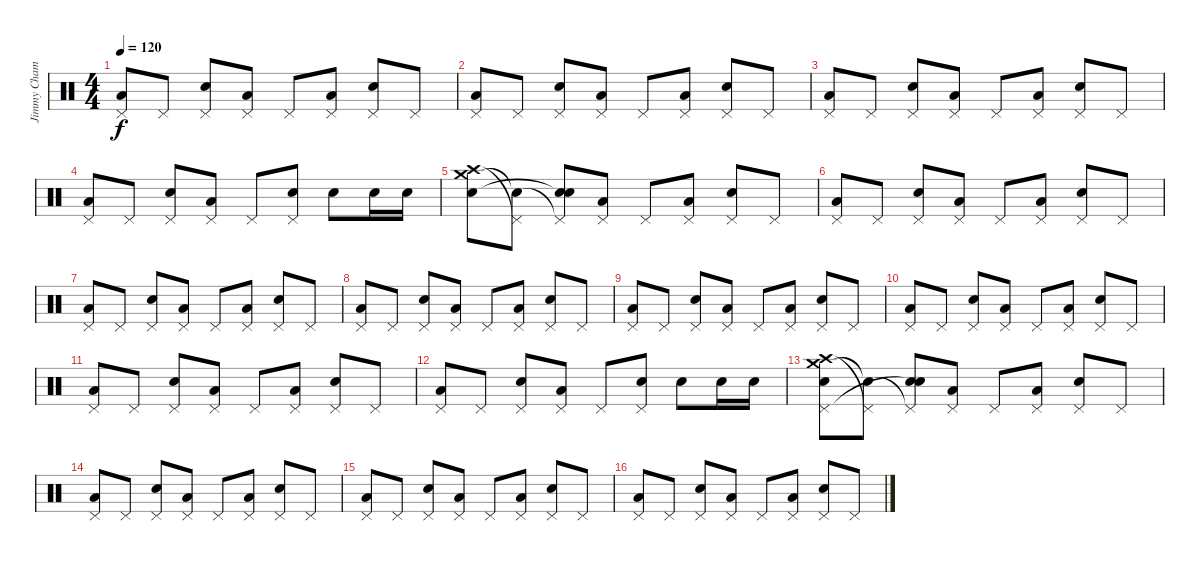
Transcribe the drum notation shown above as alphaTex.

\track ("Jimmy Chamberlin" "Jimmy Cham") {instrument percussion}
\staff {score}
\articulation defaults
\ts (4 4)
\tempo 120
\clef neutral
\ks c
("Low Floor Tom (hit)" "Pedal Hi-Hat (hit)").8{dy f} "Pedal Hi-Hat (hit)".8 ("Snare (hit) 2" "Pedal Hi-Hat (hit)").8 ("Low Floor Tom (hit)" "Pedal Hi-Hat (hit)").8 "Pedal Hi-Hat (hit)".8 ("Low Floor Tom (hit)" "Pedal Hi-Hat (hit)").8 ("Snare (hit) 2" "Pedal Hi-Hat (hit)").8 "Pedal Hi-Hat (hit)".8 |
("Low Floor Tom (hit)" "Pedal Hi-Hat (hit)").8 "Pedal Hi-Hat (hit)".8 ("Snare (hit) 2" "Pedal Hi-Hat (hit)").8 ("Low Floor Tom (hit)" "Pedal Hi-Hat (hit)").8 "Pedal Hi-Hat (hit)".8 ("Low Floor Tom (hit)" "Pedal Hi-Hat (hit)").8 ("Snare (hit) 2" "Pedal Hi-Hat (hit)").8 "Pedal Hi-Hat (hit)".8 |
("Low Floor Tom (hit)" "Pedal Hi-Hat (hit)").8 "Pedal Hi-Hat (hit)".8 ("Snare (hit) 2" "Pedal Hi-Hat (hit)").8 ("Low Floor Tom (hit)" "Pedal Hi-Hat (hit)").8 "Pedal Hi-Hat (hit)".8 ("Low Floor Tom (hit)" "Pedal Hi-Hat (hit)").8 ("Snare (hit) 2" "Pedal Hi-Hat (hit)").8 "Pedal Hi-Hat (hit)".8 |
("Low Floor Tom (hit)" "Pedal Hi-Hat (hit)").8 "Pedal Hi-Hat (hit)".8 ("Snare (hit) 2" "Pedal Hi-Hat (hit)").8 ("Low Floor Tom (hit)" "Pedal Hi-Hat (hit)").8 "Pedal Hi-Hat (hit)".8 ("Snare (hit) 2" "Pedal Hi-Hat (hit)").8 "Snare (hit) 2".8 "Snare (hit) 2".16 "Snare (hit) 2".16 |
("Crash high (hit)" "Crash medium (hit)" "Snare (hit)").8 ("Pedal Hi-Hat (hit)"{t} "Snare (hit)"{t}).8 ("Snare (hit) 2" "Pedal Hi-Hat (hit)"{t} "Snare (hit)"{t}).8 ("Low Floor Tom (hit)" "Pedal Hi-Hat (hit)").8 "Pedal Hi-Hat (hit)".8 ("Low Floor Tom (hit)" "Pedal Hi-Hat (hit)").8 ("Snare (hit) 2" "Pedal Hi-Hat (hit)").8 "Pedal Hi-Hat (hit)".8 |
("Low Floor Tom (hit)" "Pedal Hi-Hat (hit)").8 "Pedal Hi-Hat (hit)".8 ("Snare (hit) 2" "Pedal Hi-Hat (hit)").8 ("Low Floor Tom (hit)" "Pedal Hi-Hat (hit)").8 "Pedal Hi-Hat (hit)".8 ("Low Floor Tom (hit)" "Pedal Hi-Hat (hit)").8 ("Snare (hit) 2" "Pedal Hi-Hat (hit)").8 "Pedal Hi-Hat (hit)".8 |
("Low Floor Tom (hit)" "Pedal Hi-Hat (hit)").8 "Pedal Hi-Hat (hit)".8 ("Snare (hit) 2" "Pedal Hi-Hat (hit)").8 ("Low Floor Tom (hit)" "Pedal Hi-Hat (hit)").8 "Pedal Hi-Hat (hit)".8 ("Low Floor Tom (hit)" "Pedal Hi-Hat (hit)").8 ("Snare (hit) 2" "Pedal Hi-Hat (hit)").8 "Pedal Hi-Hat (hit)".8 |
("Low Floor Tom (hit)" "Pedal Hi-Hat (hit)").8 "Pedal Hi-Hat (hit)".8 ("Snare (hit) 2" "Pedal Hi-Hat (hit)").8 ("Low Floor Tom (hit)" "Pedal Hi-Hat (hit)").8 "Pedal Hi-Hat (hit)".8 ("Low Floor Tom (hit)" "Pedal Hi-Hat (hit)").8 ("Snare (hit) 2" "Pedal Hi-Hat (hit)").8 "Pedal Hi-Hat (hit)".8 |
("Low Floor Tom (hit)" "Pedal Hi-Hat (hit)").8 "Pedal Hi-Hat (hit)".8 ("Snare (hit) 2" "Pedal Hi-Hat (hit)").8 ("Low Floor Tom (hit)" "Pedal Hi-Hat (hit)").8 "Pedal Hi-Hat (hit)".8 ("Low Floor Tom (hit)" "Pedal Hi-Hat (hit)").8 ("Snare (hit) 2" "Pedal Hi-Hat (hit)").8 "Pedal Hi-Hat (hit)".8 |
("Low Floor Tom (hit)" "Pedal Hi-Hat (hit)").8 "Pedal Hi-Hat (hit)".8 ("Snare (hit) 2" "Pedal Hi-Hat (hit)").8 ("Low Floor Tom (hit)" "Pedal Hi-Hat (hit)").8 "Pedal Hi-Hat (hit)".8 ("Low Floor Tom (hit)" "Pedal Hi-Hat (hit)").8 ("Snare (hit) 2" "Pedal Hi-Hat (hit)").8 "Pedal Hi-Hat (hit)".8 |
("Low Floor Tom (hit)" "Pedal Hi-Hat (hit)").8 "Pedal Hi-Hat (hit)".8 ("Snare (hit) 2" "Pedal Hi-Hat (hit)").8 ("Low Floor Tom (hit)" "Pedal Hi-Hat (hit)").8 "Pedal Hi-Hat (hit)".8 ("Low Floor Tom (hit)" "Pedal Hi-Hat (hit)").8 ("Snare (hit) 2" "Pedal Hi-Hat (hit)").8 "Pedal Hi-Hat (hit)".8 |
("Low Floor Tom (hit)" "Pedal Hi-Hat (hit)").8 "Pedal Hi-Hat (hit)".8 ("Snare (hit) 2" "Pedal Hi-Hat (hit)").8 ("Low Floor Tom (hit)" "Pedal Hi-Hat (hit)").8 "Pedal Hi-Hat (hit)".8 ("Snare (hit) 2" "Pedal Hi-Hat (hit)").8 "Snare (hit) 2".8 "Snare (hit) 2".16 "Snare (hit) 2".16 |
("Crash high (hit)" "Crash medium (hit)" "Pedal Hi-Hat (hit)" "Snare (hit)").8 ("Pedal Hi-Hat (hit)"{t} "Snare (hit)"{t}).8 ("Snare (hit) 2" "Pedal Hi-Hat (hit)"{t} "Snare (hit)"{t}).8 ("Low Floor Tom (hit)" "Pedal Hi-Hat (hit)").8 "Pedal Hi-Hat (hit)".8 ("Low Floor Tom (hit)" "Pedal Hi-Hat (hit)").8 ("Snare (hit) 2" "Pedal Hi-Hat (hit)").8 "Pedal Hi-Hat (hit)".8 |
("Low Floor Tom (hit)" "Pedal Hi-Hat (hit)").8 "Pedal Hi-Hat (hit)".8 ("Snare (hit) 2" "Pedal Hi-Hat (hit)").8 ("Low Floor Tom (hit)" "Pedal Hi-Hat (hit)").8 "Pedal Hi-Hat (hit)".8 ("Low Floor Tom (hit)" "Pedal Hi-Hat (hit)").8 ("Snare (hit) 2" "Pedal Hi-Hat (hit)").8 "Pedal Hi-Hat (hit)".8 |
("Low Floor Tom (hit)" "Pedal Hi-Hat (hit)").8 "Pedal Hi-Hat (hit)".8 ("Snare (hit) 2" "Pedal Hi-Hat (hit)").8 ("Low Floor Tom (hit)" "Pedal Hi-Hat (hit)").8 "Pedal Hi-Hat (hit)".8 ("Low Floor Tom (hit)" "Pedal Hi-Hat (hit)").8 ("Snare (hit) 2" "Pedal Hi-Hat (hit)").8 "Pedal Hi-Hat (hit)".8 |
("Low Floor Tom (hit)" "Pedal Hi-Hat (hit)").8 "Pedal Hi-Hat (hit)".8 ("Snare (hit) 2" "Pedal Hi-Hat (hit)").8 ("Low Floor Tom (hit)" "Pedal Hi-Hat (hit)").8 "Pedal Hi-Hat (hit)".8 ("Low Floor Tom (hit)" "Pedal Hi-Hat (hit)").8 ("Snare (hit) 2" "Pedal Hi-Hat (hit)").8 "Pedal Hi-Hat (hit)".8
